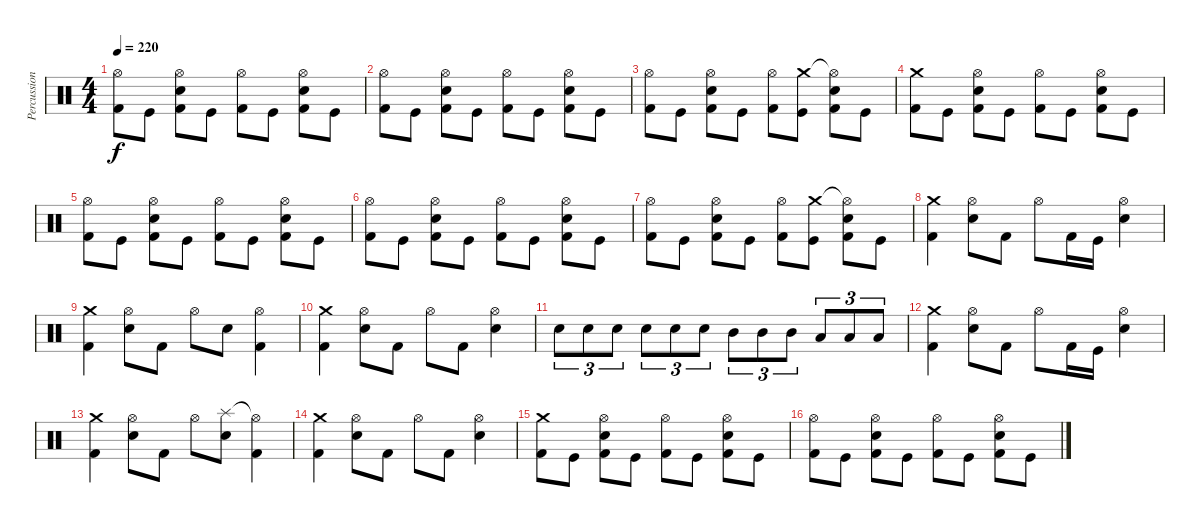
\track ("Percussions" "Percussion") {instrument percussion}
\staff {score}
\articulation defaults
\ts (4 4)
\tempo 220
\clef neutral
\ks c
("Hi-Hat (open)" "Kick (hit) 2").8{dy f} "Kick (hit)".8 ("Hi-Hat (open)" "Electric Snare (hit)" "Kick (hit) 2").8 "Kick (hit)".8 ("Hi-Hat (open)" "Kick (hit) 2").8 "Kick (hit)".8 ("Hi-Hat (open)" "Electric Snare (hit)" "Kick (hit) 2").8 "Kick (hit)".8 |
("Hi-Hat (open)" "Kick (hit) 2").8 "Kick (hit)".8 ("Hi-Hat (open)" "Electric Snare (hit)" "Kick (hit) 2").8 "Kick (hit)".8 ("Hi-Hat (open)" "Kick (hit) 2").8 "Kick (hit)".8 ("Hi-Hat (open)" "Electric Snare (hit)" "Kick (hit) 2").8 "Kick (hit)".8 |
("Hi-Hat (open)" "Kick (hit) 2").8 "Kick (hit)".8 ("Hi-Hat (open)" "Electric Snare (hit)" "Kick (hit) 2").8 "Kick (hit)".8 ("Hi-Hat (open)" "Kick (hit) 2").8 ("Crash medium (hit)" "Kick (hit)").8 ("Hi-Hat (open)"{t} "Electric Snare (hit)" "Kick (hit) 2").8 "Kick (hit)".8 |
("Crash medium (hit)" "Kick (hit) 2").8 "Kick (hit)".8 ("Hi-Hat (open)" "Electric Snare (hit)" "Kick (hit) 2").8 "Kick (hit)".8 ("Hi-Hat (open)" "Kick (hit) 2").8 "Kick (hit)".8 ("Hi-Hat (open)" "Electric Snare (hit)" "Kick (hit) 2").8 "Kick (hit)".8 |
("Hi-Hat (open)" "Kick (hit) 2").8 "Kick (hit)".8 ("Hi-Hat (open)" "Electric Snare (hit)" "Kick (hit) 2").8 "Kick (hit)".8 ("Hi-Hat (open)" "Kick (hit) 2").8 "Kick (hit)".8 ("Hi-Hat (open)" "Electric Snare (hit)" "Kick (hit) 2").8 "Kick (hit)".8 |
("Hi-Hat (open)" "Kick (hit) 2").8 "Kick (hit)".8 ("Hi-Hat (open)" "Electric Snare (hit)" "Kick (hit) 2").8 "Kick (hit)".8 ("Hi-Hat (open)" "Kick (hit) 2").8 "Kick (hit)".8 ("Hi-Hat (open)" "Electric Snare (hit)" "Kick (hit) 2").8 "Kick (hit)".8 |
("Hi-Hat (open)" "Kick (hit) 2").8 "Kick (hit)".8 ("Hi-Hat (open)" "Electric Snare (hit)" "Kick (hit) 2").8 "Kick (hit)".8 ("Hi-Hat (open)" "Kick (hit) 2").8 ("Crash medium (hit)" "Kick (hit)").8 ("Hi-Hat (open)"{t} "Electric Snare (hit)" "Kick (hit) 2").8 "Kick (hit)".8 |
("Crash medium (hit)" "Kick (hit) 2").4 ("Hi-Hat (open)" "Electric Snare (hit)").8 "Kick (hit) 2".8 "Hi-Hat (open)".8 "Kick (hit) 2".16 "Kick (hit)".16 ("Hi-Hat (open)" "Electric Snare (hit)").4 |
("Crash medium (hit)" "Kick (hit) 2").4 ("Hi-Hat (open)" "Electric Snare (hit)").8 "Kick (hit) 2".8 "Hi-Hat (open)".8 "Electric Snare (hit)".8 ("Hi-Hat (open)" "Kick (hit) 2").4 |
("Crash medium (hit)" "Kick (hit) 2").4 ("Hi-Hat (open)" "Electric Snare (hit)").8 "Kick (hit) 2".8 "Hi-Hat (open)".8 "Kick (hit) 2".8 ("Hi-Hat (open)" "Electric Snare (hit)").4 |
"Electric Snare (hit)".8{tu (3 2)} "Electric Snare (hit)".8{tu (3 2)} "Electric Snare (hit)".8{tu (3 2)} "Electric Snare (hit)".8{tu (3 2)} "Electric Snare (hit)".8{tu (3 2)} "Electric Snare (hit)".8{tu (3 2)} "Mid Tom (hit)".8{tu (3 2)} "Mid Tom (hit)".8{tu (3 2)} "Mid Tom (hit)".8{tu (3 2)} "Low Tom (hit)".8{tu (3 2)} "Low Tom (hit)".8{tu (3 2)} "Low Tom (hit)".8{tu (3 2)} |
("Crash medium (hit)" "Kick (hit) 2").4 ("Hi-Hat (open)" "Electric Snare (hit)").8 "Kick (hit) 2".8 "Hi-Hat (open)".8 "Kick (hit) 2".16 "Kick (hit)".16 ("Hi-Hat (open)" "Electric Snare (hit)").4 |
("Crash medium (hit)" "Kick (hit) 2").4 ("Hi-Hat (open)" "Electric Snare (hit)").8 "Kick (hit) 2".8 "Hi-Hat (open)".8 ("Splash (hit)" "Electric Snare (hit)").8 ("Hi-Hat (open)"{t} "Kick (hit) 2").4 |
("Crash medium (hit)" "Kick (hit) 2").4 ("Hi-Hat (open)" "Electric Snare (hit)").8 "Kick (hit) 2".8 "Hi-Hat (open)".8 "Kick (hit) 2".8 ("Hi-Hat (open)" "Electric Snare (hit)").4 |
("Crash medium (hit)" "Kick (hit) 2").8 "Kick (hit)".8 ("Hi-Hat (open)" "Electric Snare (hit)" "Kick (hit) 2").8 "Kick (hit)".8 ("Hi-Hat (open)" "Kick (hit) 2").8 "Kick (hit)".8 ("Hi-Hat (open)" "Electric Snare (hit)" "Kick (hit) 2").8 "Kick (hit)".8 |
("Hi-Hat (open)" "Kick (hit) 2").8 "Kick (hit)".8 ("Hi-Hat (open)" "Electric Snare (hit)" "Kick (hit) 2").8 "Kick (hit)".8 ("Hi-Hat (open)" "Kick (hit) 2").8 "Kick (hit)".8 ("Hi-Hat (open)" "Electric Snare (hit)" "Kick (hit) 2").8 "Kick (hit)".8
